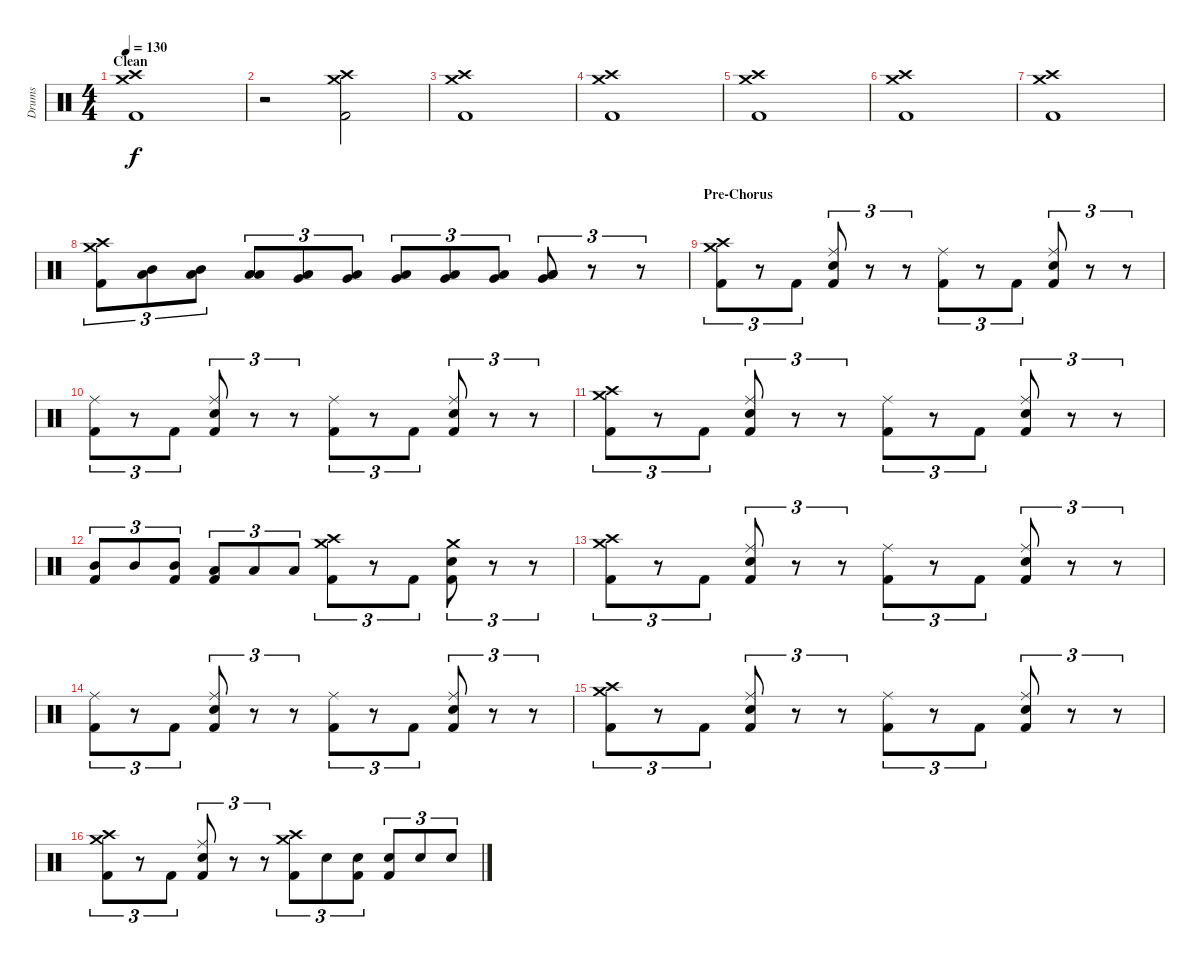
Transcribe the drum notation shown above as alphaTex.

\track ("Drums" "Drums") {instrument percussion}
\staff {score}
\articulation defaults
\ts (4 4)
\section ("" "Clean")
\tempo 130
\clef neutral
\ks c
("Crash high (hit)" "Crash medium (hit)" "Kick (hit) 2").1{dy f} |
r.2 ("Crash high (hit)" "Crash medium (hit)" "Kick (hit) 2").2 |
("Crash high (hit)" "Crash medium (hit)" "Kick (hit) 2").1 |
("Crash high (hit)" "Crash medium (hit)" "Kick (hit) 2").1 |
("Crash high (hit)" "Crash medium (hit)" "Kick (hit) 2").1 |
("Crash high (hit)" "Crash medium (hit)" "Kick (hit) 2").1 |
("Crash high (hit)" "Crash medium (hit)" "Kick (hit) 2").1 |
("Crash medium (hit)" "Crash high (hit)" "Kick (hit) 2").8{tu (3 2)} ("Mid Tom (hit)" "Low Tom (hit)").8{tu (3 2)} ("Mid Tom (hit)" "Low Tom (hit)").8{tu (3 2)} ("Low Tom (hit)" "Low Tom (hit)").8{tu (3 2)} ("Low Tom (hit)" "Very Low Tom (hit)").8{tu (3 2)} ("Low Tom (hit)" "Very Low Tom (hit)").8{tu (3 2)} ("Very Low Tom (hit)" "Low Tom (hit)").8{tu (3 2)} ("Very Low Tom (hit)" "Low Tom (hit)").8{tu (3 2)} ("Very Low Tom (hit)" "Low Floor Tom (hit)").8{tu (3 2)} ("Very Low Tom (hit)" "Low Tom (hit)" "Low Floor Tom (hit)").8{tu (3 2)} r.8{tu (3 2)} r.8{tu (3 2)} |
\section ("" "Pre-Chorus")
("Crash medium (hit)" "Crash high (hit)" "Kick (hit) 2").8{tu (3 2)} r.8{tu (3 2)} "Kick (hit) 2".8{tu (3 2)} ("Ride (middle)" "Snare (hit) 2" "Kick (hit) 2").8{tu (3 2)} r.8{tu (3 2)} r.8{tu (3 2)} ("Ride (middle)" "Kick (hit) 2").8{tu (3 2)} r.8{tu (3 2)} "Kick (hit) 2".8{tu (3 2)} ("Ride (middle)" "Snare (hit) 2" "Kick (hit) 2").8{tu (3 2)} r.8{tu (3 2)} r.8{tu (3 2)} |
("Ride (middle)" "Kick (hit) 2").8{tu (3 2)} r.8{tu (3 2)} "Kick (hit) 2".8{tu (3 2)} ("Ride (middle)" "Snare (hit) 2" "Kick (hit) 2").8{tu (3 2)} r.8{tu (3 2)} r.8{tu (3 2)} ("Ride (middle)" "Kick (hit) 2").8{tu (3 2)} r.8{tu (3 2)} "Kick (hit) 2".8{tu (3 2)} ("Ride (middle)" "Snare (hit) 2" "Kick (hit) 2").8{tu (3 2)} r.8{tu (3 2)} r.8{tu (3 2)} |
("Crash medium (hit)" "Crash high (hit)" "Kick (hit) 2").8{tu (3 2)} r.8{tu (3 2)} "Kick (hit) 2".8{tu (3 2)} ("Ride (middle)" "Snare (hit) 2" "Kick (hit) 2").8{tu (3 2)} r.8{tu (3 2)} r.8{tu (3 2)} ("Ride (middle)" "Kick (hit) 2").8{tu (3 2)} r.8{tu (3 2)} "Kick (hit) 2".8{tu (3 2)} ("Ride (middle)" "Snare (hit) 2" "Kick (hit) 2").8{tu (3 2)} r.8{tu (3 2)} r.8{tu (3 2)} |
("Mid Tom (hit)" "Kick (hit) 2").8{tu (3 2)} "Mid Tom (hit)".8{tu (3 2)} ("Mid Tom (hit)" "Kick (hit) 2").8{tu (3 2)} ("Low Tom (hit)" "Kick (hit) 2").8{tu (3 2)} "Low Tom (hit)".8{tu (3 2)} "Low Tom (hit)".8{tu (3 2)} ("Crash medium (hit)" "Crash high (hit)" "Kick (hit) 2").8{tu (3 2)} r.8{tu (3 2)} "Kick (hit) 2".8{tu (3 2)} ("Crash medium (hit)" "Snare (hit) 2" "Kick (hit) 2").8{tu (3 2)} r.8{tu (3 2)} r.8{tu (3 2)} |
("Crash medium (hit)" "Crash high (hit)" "Kick (hit) 2").8{tu (3 2)} r.8{tu (3 2)} "Kick (hit) 2".8{tu (3 2)} ("Ride (middle)" "Snare (hit) 2" "Kick (hit) 2").8{tu (3 2)} r.8{tu (3 2)} r.8{tu (3 2)} ("Ride (middle)" "Kick (hit) 2").8{tu (3 2)} r.8{tu (3 2)} "Kick (hit) 2".8{tu (3 2)} ("Ride (middle)" "Snare (hit) 2" "Kick (hit) 2").8{tu (3 2)} r.8{tu (3 2)} r.8{tu (3 2)} |
("Ride (middle)" "Kick (hit) 2").8{tu (3 2)} r.8{tu (3 2)} "Kick (hit) 2".8{tu (3 2)} ("Ride (middle)" "Snare (hit) 2" "Kick (hit) 2").8{tu (3 2)} r.8{tu (3 2)} r.8{tu (3 2)} ("Ride (middle)" "Kick (hit) 2").8{tu (3 2)} r.8{tu (3 2)} "Kick (hit) 2".8{tu (3 2)} ("Ride (middle)" "Snare (hit) 2" "Kick (hit) 2").8{tu (3 2)} r.8{tu (3 2)} r.8{tu (3 2)} |
("Crash medium (hit)" "Crash high (hit)" "Kick (hit) 2").8{tu (3 2)} r.8{tu (3 2)} "Kick (hit) 2".8{tu (3 2)} ("Ride (middle)" "Snare (hit) 2" "Kick (hit) 2").8{tu (3 2)} r.8{tu (3 2)} r.8{tu (3 2)} ("Ride (middle)" "Kick (hit) 2").8{tu (3 2)} r.8{tu (3 2)} "Kick (hit) 2".8{tu (3 2)} ("Ride (middle)" "Snare (hit) 2" "Kick (hit) 2").8{tu (3 2)} r.8{tu (3 2)} r.8{tu (3 2)} |
("Crash medium (hit)" "Crash high (hit)" "Kick (hit) 2").8{tu (3 2)} r.8{tu (3 2)} "Kick (hit) 2".8{tu (3 2)} ("Ride (middle)" "Snare (hit) 2" "Kick (hit) 2").8{tu (3 2)} r.8{tu (3 2)} r.8{tu (3 2)} ("Crash medium (hit)" "Crash high (hit)" "Kick (hit) 2").8{tu (3 2)} "Snare (hit) 2".8{tu (3 2)} ("Snare (hit) 2" "Kick (hit) 2").8{tu (3 2)} ("Snare (hit) 2" "Kick (hit) 2").8{tu (3 2)} "Snare (hit) 2".8{tu (3 2)} "Snare (hit) 2".8{tu (3 2)}
